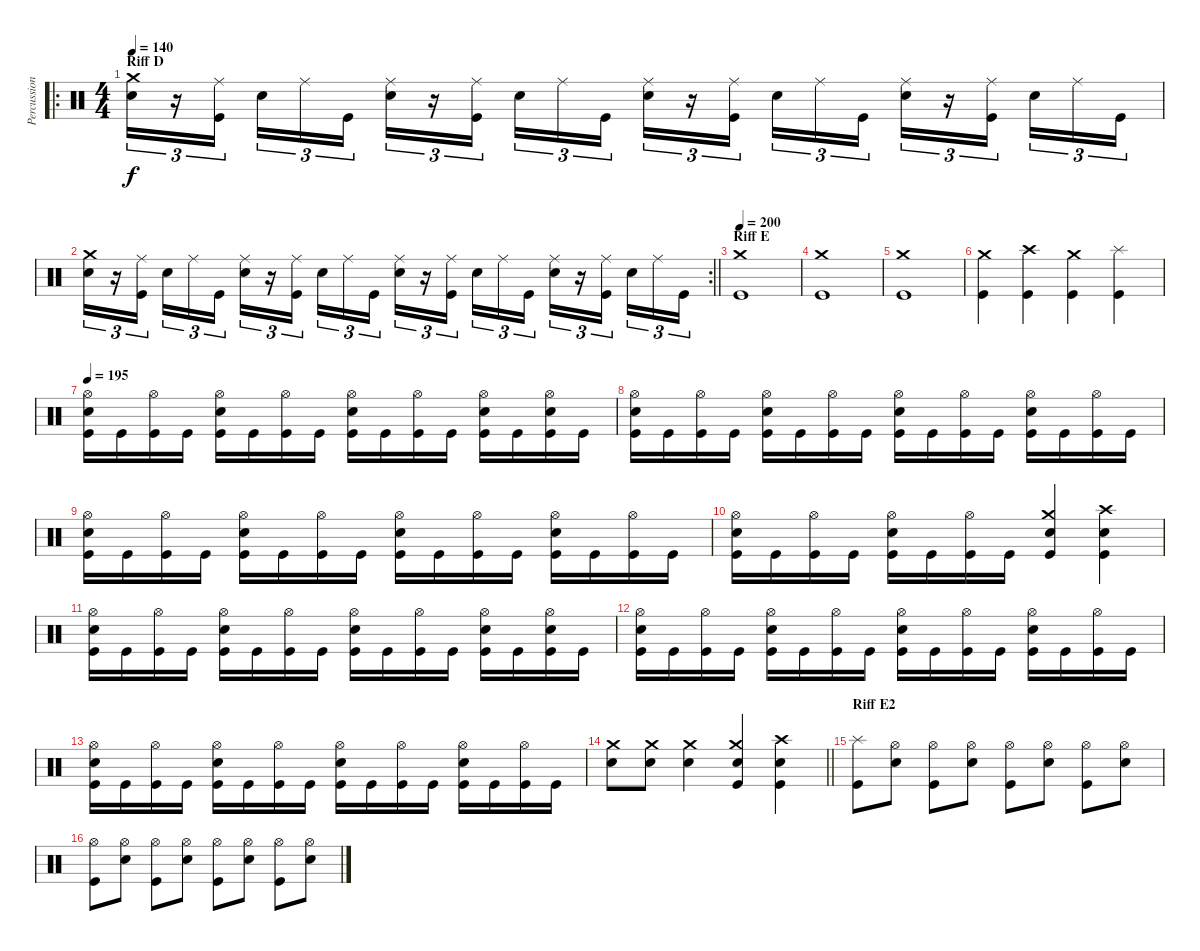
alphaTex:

\track ("Percussion" "Percussion") {instrument percussion}
\staff {score}
\articulation defaults
\ro
\ts (4 4)
\section ("" "Riff D")
\tempo 140
\clef neutral
\ks c
("Snare (hit) 2" "Crash medium (hit)").16{tu (3 2) dy f} r.16{tu (3 2)} ("Kick (hit)" "Ride (middle)").16{tu (3 2)} "Snare (hit) 2".16{tu (3 2)} "Ride (middle)".16{tu (3 2)} "Kick (hit)".16{tu (3 2)} ("Snare (hit) 2" "Ride (middle)").16{tu (3 2)} r.16{tu (3 2)} ("Kick (hit)" "Ride (middle)").16{tu (3 2)} "Snare (hit) 2".16{tu (3 2)} "Ride (middle)".16{tu (3 2)} "Kick (hit)".16{tu (3 2)} ("Snare (hit) 2" "Ride (middle)").16{tu (3 2)} r.16{tu (3 2)} ("Kick (hit)" "Ride (middle)").16{tu (3 2)} "Snare (hit) 2".16{tu (3 2)} "Ride (middle)".16{tu (3 2)} "Kick (hit)".16{tu (3 2)} ("Snare (hit) 2" "Ride (middle)").16{tu (3 2)} r.16{tu (3 2)} ("Kick (hit)" "Ride (middle)").16{tu (3 2)} "Snare (hit) 2".16{tu (3 2)} "Ride (middle)".16{tu (3 2)} "Kick (hit)".16{tu (3 2)} |
\rc 2
\barLineRight lightlight
("Snare (hit) 2" "Crash medium (hit)").16{tu (3 2)} r.16{tu (3 2)} ("Kick (hit)" "Ride (middle)").16{tu (3 2)} "Snare (hit) 2".16{tu (3 2)} "Ride (middle)".16{tu (3 2)} "Kick (hit)".16{tu (3 2)} ("Snare (hit) 2" "Ride (middle)").16{tu (3 2)} r.16{tu (3 2)} ("Kick (hit)" "Ride (middle)").16{tu (3 2)} "Snare (hit) 2".16{tu (3 2)} "Ride (middle)".16{tu (3 2)} "Kick (hit)".16{tu (3 2)} ("Snare (hit) 2" "Ride (middle)").16{tu (3 2)} r.16{tu (3 2)} ("Kick (hit)" "Ride (middle)").16{tu (3 2)} "Snare (hit) 2".16{tu (3 2)} "Ride (middle)".16{tu (3 2)} "Kick (hit)".16{tu (3 2)} ("Snare (hit) 2" "Ride (middle)").16{tu (3 2)} r.16{tu (3 2)} ("Kick (hit)" "Ride (middle)").16{tu (3 2)} "Snare (hit) 2".16{tu (3 2)} "Ride (middle)".16{tu (3 2)} "Kick (hit)".16{tu (3 2)} |
\section ("" "Riff E")
\tempo 200
("Kick (hit)" "Crash medium (hit)").1 |
("Kick (hit)" "Crash medium (hit)").1 |
("Kick (hit)" "Crash medium (hit)").1 |
("Kick (hit)" "Crash medium (hit)").4 ("Kick (hit)" "Crash high (hit)").4 ("Kick (hit)" "Crash medium (hit)").4 ("Kick (hit)" "Splash (hit)").4 |
\tempo 195
("Kick (hit)" "Snare (hit) 2" "Hi-Hat (open)").16 "Kick (hit)".16 ("Kick (hit)" "Hi-Hat (open)").16 "Kick (hit)".16 ("Kick (hit)" "Snare (hit) 2" "Hi-Hat (open)").16 "Kick (hit)".16 ("Kick (hit)" "Hi-Hat (open)").16 "Kick (hit)".16 ("Kick (hit)" "Snare (hit) 2" "Hi-Hat (open)").16 "Kick (hit)".16 ("Kick (hit)" "Hi-Hat (open)").16 "Kick (hit)".16 ("Kick (hit)" "Snare (hit) 2" "Hi-Hat (open)").16 "Kick (hit)".16 ("Kick (hit)" "Snare (hit) 2" "Hi-Hat (open)").16 "Kick (hit)".16 |
("Kick (hit)" "Snare (hit) 2" "Hi-Hat (open)").16 "Kick (hit)".16 ("Kick (hit)" "Hi-Hat (open)").16 "Kick (hit)".16 ("Kick (hit)" "Snare (hit) 2" "Hi-Hat (open)").16 "Kick (hit)".16 ("Kick (hit)" "Hi-Hat (open)").16 "Kick (hit)".16 ("Kick (hit)" "Snare (hit) 2" "Hi-Hat (open)").16 "Kick (hit)".16 ("Kick (hit)" "Hi-Hat (open)").16 "Kick (hit)".16 ("Kick (hit)" "Snare (hit) 2" "Hi-Hat (open)").16 "Kick (hit)".16 ("Kick (hit)" "Hi-Hat (open)").16 "Kick (hit)".16 |
("Kick (hit)" "Snare (hit) 2" "Hi-Hat (open)").16 "Kick (hit)".16 ("Kick (hit)" "Hi-Hat (open)").16 "Kick (hit)".16 ("Kick (hit)" "Snare (hit) 2" "Hi-Hat (open)").16 "Kick (hit)".16 ("Kick (hit)" "Hi-Hat (open)").16 "Kick (hit)".16 ("Kick (hit)" "Snare (hit) 2" "Hi-Hat (open)").16 "Kick (hit)".16 ("Kick (hit)" "Hi-Hat (open)").16 "Kick (hit)".16 ("Kick (hit)" "Snare (hit) 2" "Hi-Hat (open)").16 "Kick (hit)".16 ("Kick (hit)" "Hi-Hat (open)").16 "Kick (hit)".16 |
("Kick (hit)" "Snare (hit) 2" "Hi-Hat (open)").16 "Kick (hit)".16 ("Kick (hit)" "Hi-Hat (open)").16 "Kick (hit)".16 ("Kick (hit)" "Snare (hit) 2" "Hi-Hat (open)").16 "Kick (hit)".16 ("Kick (hit)" "Hi-Hat (open)").16 "Kick (hit)".16 ("Kick (hit)" "Snare (hit) 2" "Crash medium (hit)").4 ("Kick (hit)" "Snare (hit) 2" "Crash high (hit)").4 |
("Kick (hit)" "Snare (hit) 2" "Hi-Hat (open)").16 "Kick (hit)".16 ("Kick (hit)" "Hi-Hat (open)").16 "Kick (hit)".16 ("Kick (hit)" "Snare (hit) 2" "Hi-Hat (open)").16 "Kick (hit)".16 ("Kick (hit)" "Hi-Hat (open)").16 "Kick (hit)".16 ("Kick (hit)" "Snare (hit) 2" "Hi-Hat (open)").16 "Kick (hit)".16 ("Kick (hit)" "Hi-Hat (open)").16 "Kick (hit)".16 ("Kick (hit)" "Snare (hit) 2" "Hi-Hat (open)").16 "Kick (hit)".16 ("Kick (hit)" "Snare (hit) 2" "Hi-Hat (open)").16 "Kick (hit)".16 |
("Kick (hit)" "Snare (hit) 2" "Hi-Hat (open)").16 "Kick (hit)".16 ("Kick (hit)" "Hi-Hat (open)").16 "Kick (hit)".16 ("Kick (hit)" "Snare (hit) 2" "Hi-Hat (open)").16 "Kick (hit)".16 ("Kick (hit)" "Hi-Hat (open)").16 "Kick (hit)".16 ("Kick (hit)" "Snare (hit) 2" "Hi-Hat (open)").16 "Kick (hit)".16 ("Kick (hit)" "Hi-Hat (open)").16 "Kick (hit)".16 ("Kick (hit)" "Snare (hit) 2" "Hi-Hat (open)").16 "Kick (hit)".16 ("Kick (hit)" "Hi-Hat (open)").16 "Kick (hit)".16 |
("Kick (hit)" "Snare (hit) 2" "Hi-Hat (open)").16 "Kick (hit)".16 ("Kick (hit)" "Hi-Hat (open)").16 "Kick (hit)".16 ("Kick (hit)" "Snare (hit) 2" "Hi-Hat (open)").16 "Kick (hit)".16 ("Kick (hit)" "Hi-Hat (open)").16 "Kick (hit)".16 ("Kick (hit)" "Snare (hit) 2" "Hi-Hat (open)").16 "Kick (hit)".16 ("Kick (hit)" "Hi-Hat (open)").16 "Kick (hit)".16 ("Kick (hit)" "Snare (hit) 2" "Hi-Hat (open)").16 "Kick (hit)".16 ("Kick (hit)" "Hi-Hat (open)").16 "Kick (hit)".16 |
\barLineRight lightlight
("Snare (hit) 2" "Crash medium (hit)").8 ("Snare (hit) 2" "Crash medium (hit)").8 ("Snare (hit) 2" "Crash medium (hit)").4 ("Kick (hit)" "Snare (hit) 2" "Crash medium (hit)").4 ("Kick (hit)" "Snare (hit) 2" "Crash high (hit)").4 |
\section ("" "Riff E2")
("Kick (hit)" "Splash (hit)").8 ("Snare (hit) 2" "Hi-Hat (open)").8 ("Kick (hit)" "Hi-Hat (open)").8 ("Snare (hit) 2" "Hi-Hat (open)").8 ("Kick (hit)" "Hi-Hat (open)").8 ("Snare (hit) 2" "Hi-Hat (open)").8 ("Kick (hit)" "Hi-Hat (open)").8 ("Snare (hit) 2" "Hi-Hat (open)").8 |
("Kick (hit)" "Hi-Hat (open)").8 ("Snare (hit) 2" "Hi-Hat (open)").8 ("Kick (hit)" "Hi-Hat (open)").8 ("Snare (hit) 2" "Hi-Hat (open)").8 ("Kick (hit)" "Hi-Hat (open)").8 ("Snare (hit) 2" "Hi-Hat (open)").8 ("Kick (hit)" "Hi-Hat (open)").8 ("Snare (hit) 2" "Hi-Hat (open)").8
